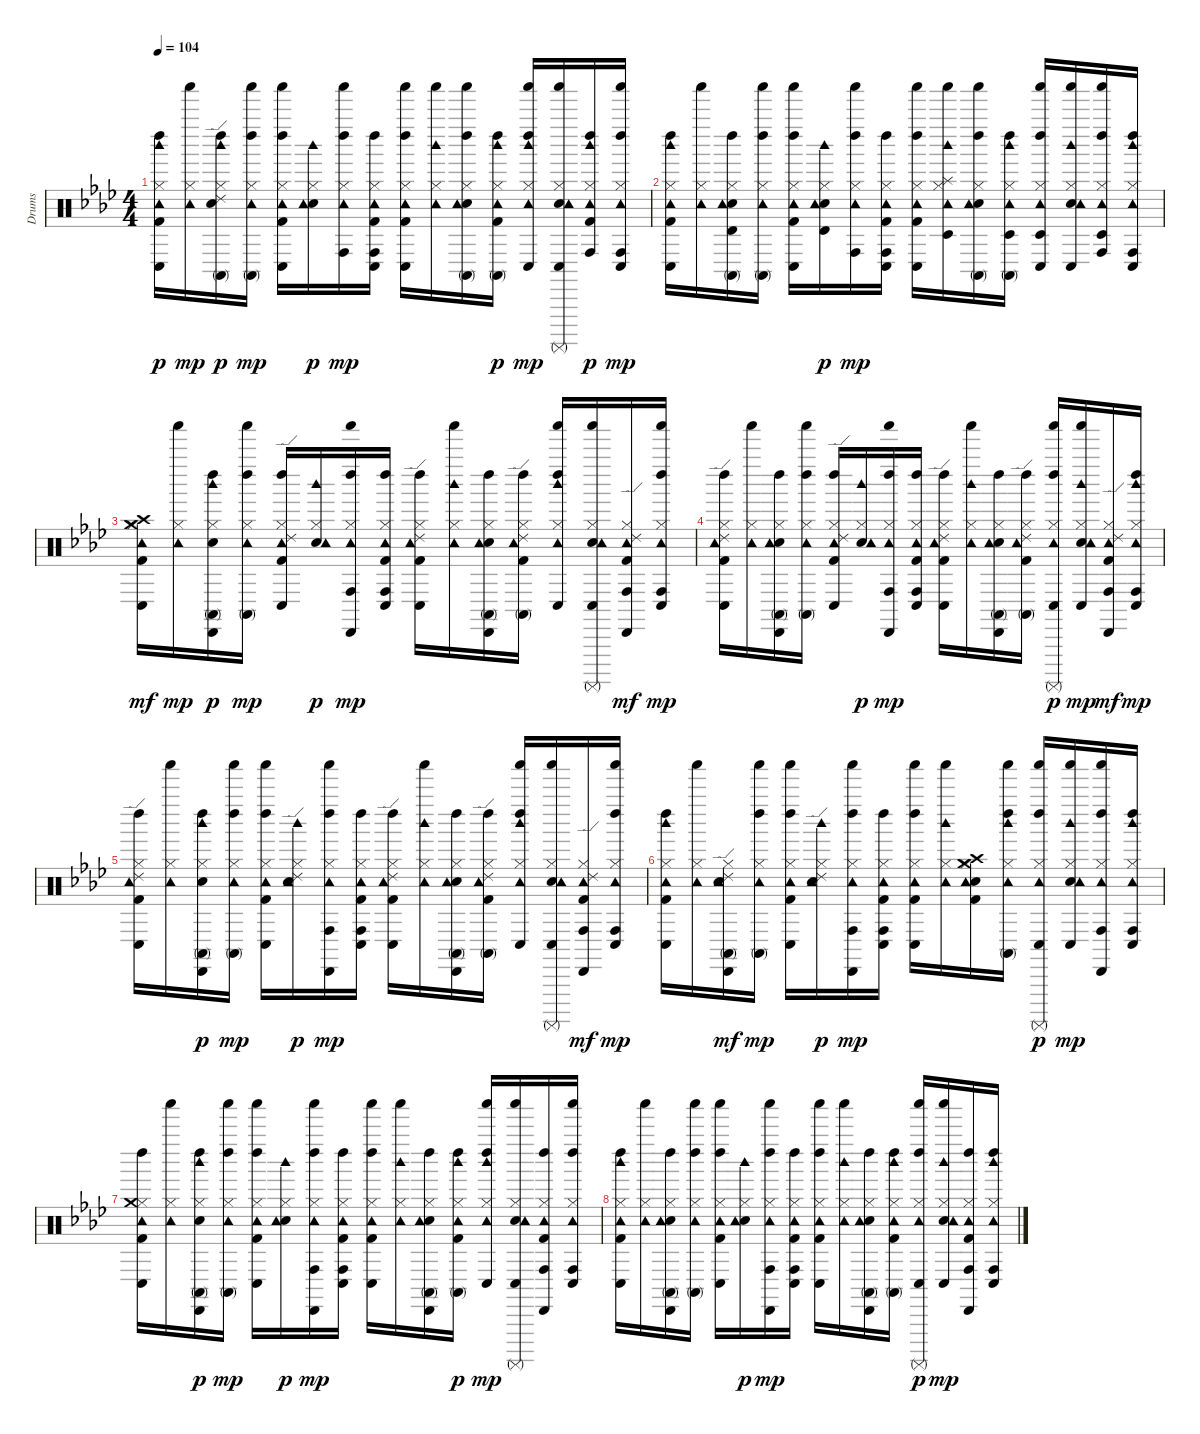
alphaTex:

\track ("Drums" "Drums") {instrument percussion}
\staff {score}
\articulation defaults
\ts (4 4)
\tempo 104
\clef neutral
\ks ab
("Kick (hit) 2" "Hi-Hat (closed)" "Tambourine (hit)" "Conga low (hit)" "Left Maraca (hit)" "Woodblock high (hit)").16{dy p} ("Hi-Hat (closed)" "Tambourine (hit)" "Shaker (hit)").16{dy mp} ("Hand Clap (hit)" "Hi-Hat (closed)" "Ride (edge) 2" "Conga high (mute)" "Left Maraca (hit)" "Woodblock high (hit)").16{dy p} ("Hi-Hat (closed)" "Tambourine (hit)" "Conga high (mute)" "Left Maraca (hit)" "Shaker (hit)").16{dy mp} ("Kick (hit) 2" "Hi-Hat (closed)" "Tambourine (hit)" "Conga low (hit)" "Left Maraca (hit)" "Shaker (hit)").16 ("Hand Clap (hit)" "Hi-Hat (closed)" "Tambourine (hit)" "Woodblock high (hit)").16{dy p} ("Hi-Hat (closed)" "Tambourine (hit)" "Conga high (hit)" "Left Maraca (hit)" "Shaker (hit)").16{dy mp} ("Kick (hit) 2" "Hi-Hat (closed)" "Tambourine (hit)" "Conga high (hit)" "Conga low (hit)" "Left Maraca (hit)").16 ("Kick (hit) 2" "Hi-Hat (closed)" "Tambourine (hit)" "Conga low (hit)" "Left Maraca (hit)" "Shaker (hit)").16 ("Hi-Hat (closed)" "Tambourine (hit)" "Woodblock high (hit)" "Shaker (hit)").16 ("Hand Clap (hit)" "Hi-Hat (closed)" "Tambourine (hit)" "Conga high (mute)" "Left Maraca (hit)" "Shaker (hit)").16 ("Kick (hit) 2" "Hi-Hat (closed)" "Tambourine (hit)" "Conga high (mute)" "Left Maraca (hit)" "Woodblock high (hit)").16{dy p} ("Hi-Hat (closed)" "Tambourine (hit)" "Conga low (hit)" "Left Maraca (hit)" "Woodblock high (hit)" "Shaker (hit)").16{dy mp} ("Hand Clap (hit)" "Hi-Hat (closed)" "Tambourine (hit)" "Conga low (hit)" "Shaker (hit)" "Surdo (mute)").16 ("Kick (hit) 2" "Hi-Hat (closed)" "Tambourine (hit)" "Conga high (hit)" "Left Maraca (hit)" "Woodblock high (hit)").16{dy p} ("Hi-Hat (closed)" "Tambourine (hit)" "Conga high (hit)" "Conga low (hit)" "Left Maraca (hit)" "Shaker (hit)").16{dy mp} |
("Kick (hit) 2" "Hi-Hat (closed)" "Tambourine (hit)" "Conga low (hit)" "Left Maraca (hit)" "Woodblock high (hit)").16 ("Hi-Hat (closed)" "Tambourine (hit)" "Shaker (hit)").16 ("Hand Clap (hit)" "Hi-Hat (closed)" "Tambourine (hit)" "Conga high (mute)" "Timbale high (hit)" "Left Maraca (hit)").16 ("Hi-Hat (closed)" "Tambourine (hit)" "Conga high (mute)" "Left Maraca (hit)" "Shaker (hit)").16 ("Kick (hit) 2" "Hi-Hat (closed)" "Tambourine (hit)" "Conga low (hit)" "Left Maraca (hit)" "Shaker (hit)").16 ("Hand Clap (hit)" "Hi-Hat (closed)" "Tambourine (hit)" "Timbale high (hit)" "Woodblock high (hit)").16{dy p} ("Hi-Hat (closed)" "Tambourine (hit)" "Conga high (hit)" "Left Maraca (hit)" "Shaker (hit)").16{dy mp} ("Kick (hit) 2" "Hi-Hat (closed)" "Tambourine (hit)" "Conga high (hit)" "Conga low (hit)" "Left Maraca (hit)").16 ("Kick (hit) 2" "Hi-Hat (closed)" "Tambourine (hit)" "Conga low (hit)" "Left Maraca (hit)" "Shaker (hit)").16 ("Hi-Hat (closed)" "Tambourine (hit)" "Splash (hit)" "Timbale low (hit)" "Woodblock high (hit)" "Shaker (hit)").16 ("Hand Clap (hit)" "Hi-Hat (closed)" "Tambourine (hit)" "Conga high (mute)" "Left Maraca (hit)" "Shaker (hit)").16 ("Hi-Hat (closed)" "Tambourine (hit)" "Conga high (mute)" "Timbale low (hit)" "Left Maraca (hit)" "Woodblock high (hit)").16 ("Hi-Hat (closed)" "Tambourine (hit)" "Conga low (hit)" "Timbale low (hit)" "Left Maraca (hit)" "Shaker (hit)").16 ("Hand Clap (hit)" "Hi-Hat (closed)" "Tambourine (hit)" "Conga low (hit)" "Woodblock high (hit)" "Shaker (hit)").16 ("Hi-Hat (closed)" "Tambourine (hit)" "Conga high (hit)" "Timbale low (hit)" "Left Maraca (hit)" "Shaker (hit)").16 ("Hi-Hat (closed)" "Tambourine (hit)" "Conga high (hit)" "Conga low (hit)" "Left Maraca (hit)" "Woodblock high (hit)").16 |
("Kick (hit) 2" "Hi-Hat (closed)" "Crash high (hit)" "Tambourine (hit)" "Crash medium (hit)" "Conga low (hit)").16{dy mf} ("Hi-Hat (closed)" "Tambourine (hit)" "Shaker (hit)").16{dy mp} ("Hand Clap (hit)" "Hi-Hat (closed)" "Conga high (mute)" "Cabasa (hit)" "Left Maraca (hit)" "Woodblock high (hit)").16{dy p} ("Hi-Hat (closed)" "Tambourine (hit)" "Conga high (mute)" "Left Maraca (hit)" "Shaker (hit)").16{dy mp} ("Kick (hit) 2" "Hi-Hat (closed)" "Tambourine (hit)" "Ride (edge) 2" "Conga low (hit)" "Left Maraca (hit)").16 ("Hand Clap (hit)" "Hi-Hat (closed)" "Tambourine (hit)" "Woodblock high (hit)").16{dy p} ("Hi-Hat (closed)" "Tambourine (hit)" "Conga high (hit)" "Cabasa (hit)" "Left Maraca (hit)" "Shaker (hit)").16{dy mp} ("Kick (hit) 2" "Hi-Hat (closed)" "Tambourine (hit)" "Conga high (hit)" "Conga low (hit)" "Left Maraca (hit)").16 ("Kick (hit) 2" "Hi-Hat (closed)" "Tambourine (hit)" "Ride (edge) 2" "Conga low (hit)" "Left Maraca (hit)").16 ("Hi-Hat (closed)" "Tambourine (hit)" "Woodblock high (hit)" "Shaker (hit)").16 ("Hand Clap (hit)" "Hi-Hat (closed)" "Tambourine (hit)" "Conga high (mute)" "Cabasa (hit)" "Left Maraca (hit)").16 ("Kick (hit) 2" "Hi-Hat (closed)" "Tambourine (hit)" "Ride (edge) 2" "Conga high (mute)" "Left Maraca (hit)").16 ("Hi-Hat (closed)" "Tambourine (hit)" "Conga low (hit)" "Left Maraca (hit)" "Woodblock high (hit)" "Shaker (hit)").16 ("Hand Clap (hit)" "Hi-Hat (closed)" "Tambourine (hit)" "Conga low (hit)" "Shaker (hit)" "Surdo (mute)").16 ("Kick (hit) 2" "Hi-Hat (closed)" "Tambourine (hit)" "Ride (edge) 2" "Conga high (hit)" "Cabasa (hit)").16{dy mf} ("Hi-Hat (closed)" "Tambourine (hit)" "Conga high (hit)" "Conga low (hit)" "Left Maraca (hit)" "Shaker (hit)").16{dy mp} |
("Kick (hit) 2" "Hi-Hat (closed)" "Tambourine (hit)" "Ride (edge) 2" "Conga low (hit)" "Left Maraca (hit)").16 ("Hi-Hat (closed)" "Tambourine (hit)" "Shaker (hit)").16 ("Hand Clap (hit)" "Hi-Hat (closed)" "Tambourine (hit)" "Conga high (mute)" "Cabasa (hit)" "Left Maraca (hit)").16 ("Hi-Hat (closed)" "Tambourine (hit)" "Conga high (mute)" "Left Maraca (hit)" "Shaker (hit)").16 ("Kick (hit) 2" "Hi-Hat (closed)" "Tambourine (hit)" "Ride (edge) 2" "Conga low (hit)" "Left Maraca (hit)").16 ("Hand Clap (hit)" "Hi-Hat (closed)" "Tambourine (hit)" "Woodblock high (hit)").16{dy p} ("Hi-Hat (closed)" "Tambourine (hit)" "Conga high (hit)" "Cabasa (hit)" "Left Maraca (hit)" "Shaker (hit)").16{dy mp} ("Kick (hit) 2" "Hi-Hat (closed)" "Tambourine (hit)" "Conga high (hit)" "Conga low (hit)" "Left Maraca (hit)").16 ("Kick (hit) 2" "Hi-Hat (closed)" "Tambourine (hit)" "Ride (edge) 2" "Conga low (hit)" "Left Maraca (hit)").16 ("Hi-Hat (closed)" "Tambourine (hit)" "Woodblock high (hit)" "Shaker (hit)").16 ("Hand Clap (hit)" "Hi-Hat (closed)" "Tambourine (hit)" "Conga high (mute)" "Cabasa (hit)" "Left Maraca (hit)").16 ("Kick (hit) 2" "Hi-Hat (closed)" "Tambourine (hit)" "Ride (edge) 2" "Conga high (mute)" "Left Maraca (hit)").16 ("Hi-Hat (closed)" "Tambourine (hit)" "Conga low (hit)" "Left Maraca (hit)" "Shaker (hit)" "Surdo (mute)").16{dy p} ("Hand Clap (hit)" "Hi-Hat (closed)" "Tambourine (hit)" "Conga low (hit)" "Woodblock high (hit)" "Shaker (hit)").16{dy mp} ("Kick (hit) 2" "Hi-Hat (closed)" "Tambourine (hit)" "Ride (edge) 2" "Conga high (hit)" "Cabasa (hit)").16{dy mf} ("Hi-Hat (closed)" "Tambourine (hit)" "Conga high (hit)" "Conga low (hit)" "Left Maraca (hit)" "Woodblock high (hit)").16{dy mp} |
("Kick (hit) 2" "Hi-Hat (closed)" "Tambourine (hit)" "Ride (edge) 2" "Conga low (hit)" "Left Maraca (hit)").16 ("Hi-Hat (closed)" "Tambourine (hit)" "Shaker (hit)").16 ("Hand Clap (hit)" "Hi-Hat (closed)" "Conga high (mute)" "Cabasa (hit)" "Left Maraca (hit)" "Woodblock high (hit)").16{dy p} ("Hi-Hat (closed)" "Tambourine (hit)" "Conga high (mute)" "Left Maraca (hit)" "Shaker (hit)").16{dy mp} ("Kick (hit) 2" "Hi-Hat (closed)" "Tambourine (hit)" "Conga low (hit)" "Left Maraca (hit)" "Shaker (hit)").16 ("Hand Clap (hit)" "Hi-Hat (closed)" "Tambourine (hit)" "Ride (edge) 2" "Woodblock high (hit)").16{dy p} ("Hi-Hat (closed)" "Tambourine (hit)" "Conga high (hit)" "Cabasa (hit)" "Left Maraca (hit)" "Shaker (hit)").16{dy mp} ("Kick (hit) 2" "Hi-Hat (closed)" "Tambourine (hit)" "Conga high (hit)" "Conga low (hit)" "Left Maraca (hit)").16 ("Kick (hit) 2" "Hi-Hat (closed)" "Tambourine (hit)" "Ride (edge) 2" "Conga low (hit)" "Left Maraca (hit)").16 ("Hi-Hat (closed)" "Tambourine (hit)" "Woodblock high (hit)" "Shaker (hit)").16 ("Hand Clap (hit)" "Hi-Hat (closed)" "Tambourine (hit)" "Conga high (mute)" "Cabasa (hit)" "Left Maraca (hit)").16 ("Kick (hit) 2" "Hi-Hat (closed)" "Tambourine (hit)" "Ride (edge) 2" "Conga high (mute)" "Left Maraca (hit)").16 ("Hi-Hat (closed)" "Tambourine (hit)" "Conga low (hit)" "Left Maraca (hit)" "Woodblock high (hit)" "Shaker (hit)").16 ("Hand Clap (hit)" "Hi-Hat (closed)" "Tambourine (hit)" "Conga low (hit)" "Shaker (hit)" "Surdo (mute)").16 ("Kick (hit) 2" "Hi-Hat (closed)" "Tambourine (hit)" "Ride (edge) 2" "Conga high (hit)" "Cabasa (hit)").16{dy mf} ("Hi-Hat (closed)" "Tambourine (hit)" "Conga high (hit)" "Conga low (hit)" "Left Maraca (hit)" "Shaker (hit)").16{dy mp} |
("Kick (hit) 2" "Hi-Hat (closed)" "Tambourine (hit)" "Conga low (hit)" "Left Maraca (hit)" "Woodblock high (hit)").16 ("Hi-Hat (closed)" "Tambourine (hit)" "Shaker (hit)").16 ("Hand Clap (hit)" "Hi-Hat (closed)" "Tambourine (hit)" "Ride (edge) 2" "Conga high (mute)" "Cabasa (hit)").16{dy mf} ("Hi-Hat (closed)" "Tambourine (hit)" "Conga high (mute)" "Left Maraca (hit)" "Shaker (hit)").16{dy mp} ("Kick (hit) 2" "Hi-Hat (closed)" "Tambourine (hit)" "Conga low (hit)" "Left Maraca (hit)" "Shaker (hit)").16 ("Hand Clap (hit)" "Hi-Hat (closed)" "Tambourine (hit)" "Ride (edge) 2" "Woodblock high (hit)").16{dy p} ("Hi-Hat (closed)" "Tambourine (hit)" "Conga high (hit)" "Cabasa (hit)" "Left Maraca (hit)" "Shaker (hit)").16{dy mp} ("Kick (hit) 2" "Hi-Hat (closed)" "Tambourine (hit)" "Conga high (hit)" "Conga low (hit)" "Left Maraca (hit)").16 ("Kick (hit) 2" "Hi-Hat (closed)" "Tambourine (hit)" "Conga low (hit)" "Left Maraca (hit)" "Shaker (hit)").16 ("Hi-Hat (closed)" "Tambourine (hit)" "Woodblock high (hit)" "Shaker (hit)").16 ("Kick (hit) 2" "Hand Clap (hit)" "Hi-Hat (closed)" "Crash high (hit)" "Tambourine (hit)" "Crash medium (hit)").16 ("Hi-Hat (closed)" "Tambourine (hit)" "Conga high (mute)" "Left Maraca (hit)" "Woodblock high (hit)" "Shaker (hit)").16 ("Hi-Hat (closed)" "Tambourine (hit)" "Conga low (hit)" "Left Maraca (hit)" "Shaker (hit)" "Surdo (mute)").16{dy p} ("Hand Clap (hit)" "Hi-Hat (closed)" "Tambourine (hit)" "Conga low (hit)" "Woodblock high (hit)" "Shaker (hit)").16{dy mp} ("Hi-Hat (closed)" "Tambourine (hit)" "Conga high (hit)" "Cabasa (hit)" "Left Maraca (hit)" "Shaker (hit)").16 ("Hi-Hat (closed)" "Tambourine (hit)" "Conga high (hit)" "Conga low (hit)" "Left Maraca (hit)" "Woodblock high (hit)").16 |
("Kick (hit) 2" "Hi-Hat (closed)" "Tambourine (hit)" "Crash medium (hit)" "Conga low (hit)" "Left Maraca (hit)").16 ("Hi-Hat (closed)" "Tambourine (hit)" "Shaker (hit)").16 ("Hand Clap (hit)" "Hi-Hat (closed)" "Conga high (mute)" "Cabasa (hit)" "Left Maraca (hit)" "Woodblock high (hit)").16{dy p} ("Hi-Hat (closed)" "Tambourine (hit)" "Conga high (mute)" "Left Maraca (hit)" "Shaker (hit)").16{dy mp} ("Kick (hit) 2" "Hi-Hat (closed)" "Tambourine (hit)" "Conga low (hit)" "Left Maraca (hit)" "Shaker (hit)").16 ("Hand Clap (hit)" "Hi-Hat (closed)" "Tambourine (hit)" "Woodblock high (hit)").16{dy p} ("Hi-Hat (closed)" "Tambourine (hit)" "Conga high (hit)" "Cabasa (hit)" "Left Maraca (hit)" "Shaker (hit)").16{dy mp} ("Kick (hit) 2" "Hi-Hat (closed)" "Tambourine (hit)" "Conga high (hit)" "Conga low (hit)" "Left Maraca (hit)").16 ("Kick (hit) 2" "Hi-Hat (closed)" "Tambourine (hit)" "Conga low (hit)" "Left Maraca (hit)" "Shaker (hit)").16 ("Hi-Hat (closed)" "Tambourine (hit)" "Woodblock high (hit)" "Shaker (hit)").16 ("Hand Clap (hit)" "Hi-Hat (closed)" "Tambourine (hit)" "Conga high (mute)" "Cabasa (hit)" "Left Maraca (hit)").16 ("Kick (hit) 2" "Hi-Hat (closed)" "Tambourine (hit)" "Conga high (mute)" "Left Maraca (hit)" "Woodblock high (hit)").16{dy p} ("Hi-Hat (closed)" "Tambourine (hit)" "Conga low (hit)" "Left Maraca (hit)" "Woodblock high (hit)" "Shaker (hit)").16{dy mp} ("Hand Clap (hit)" "Hi-Hat (closed)" "Tambourine (hit)" "Conga low (hit)" "Shaker (hit)" "Surdo (mute)").16 ("Kick (hit) 2" "Hi-Hat (closed)" "Tambourine (hit)" "Conga high (hit)" "Cabasa (hit)" "Left Maraca (hit)").16 ("Hi-Hat (closed)" "Tambourine (hit)" "Conga high (hit)" "Conga low (hit)" "Left Maraca (hit)" "Shaker (hit)").16 |
("Kick (hit) 2" "Hi-Hat (closed)" "Tambourine (hit)" "Conga low (hit)" "Left Maraca (hit)" "Woodblock high (hit)").16 ("Hi-Hat (closed)" "Tambourine (hit)" "Shaker (hit)").16 ("Hand Clap (hit)" "Hi-Hat (closed)" "Tambourine (hit)" "Conga high (mute)" "Cabasa (hit)" "Left Maraca (hit)").16 ("Hi-Hat (closed)" "Tambourine (hit)" "Conga high (mute)" "Left Maraca (hit)" "Shaker (hit)").16 ("Kick (hit) 2" "Hi-Hat (closed)" "Tambourine (hit)" "Conga low (hit)" "Left Maraca (hit)" "Shaker (hit)").16 ("Hand Clap (hit)" "Hi-Hat (closed)" "Tambourine (hit)" "Woodblock high (hit)").16{dy p} ("Hi-Hat (closed)" "Tambourine (hit)" "Conga high (hit)" "Cabasa (hit)" "Left Maraca (hit)" "Shaker (hit)").16{dy mp} ("Kick (hit) 2" "Hi-Hat (closed)" "Tambourine (hit)" "Conga high (hit)" "Conga low (hit)" "Left Maraca (hit)").16 ("Kick (hit) 2" "Hi-Hat (closed)" "Tambourine (hit)" "Conga low (hit)" "Left Maraca (hit)" "Shaker (hit)").16 ("Hi-Hat (closed)" "Tambourine (hit)" "Woodblock high (hit)" "Shaker (hit)").16 ("Hand Clap (hit)" "Hi-Hat (closed)" "Tambourine (hit)" "Conga high (mute)" "Cabasa (hit)" "Left Maraca (hit)").16 ("Kick (hit) 2" "Hi-Hat (closed)" "Tambourine (hit)" "Conga high (mute)" "Left Maraca (hit)" "Woodblock high (hit)").16 ("Hi-Hat (closed)" "Tambourine (hit)" "Conga low (hit)" "Left Maraca (hit)" "Shaker (hit)" "Surdo (mute)").16{dy p} ("Hand Clap (hit)" "Hi-Hat (closed)" "Tambourine (hit)" "Conga low (hit)" "Woodblock high (hit)" "Shaker (hit)").16{dy mp} ("Kick (hit) 2" "Hi-Hat (closed)" "Tambourine (hit)" "Conga high (hit)" "Cabasa (hit)" "Left Maraca (hit)").16 ("Hi-Hat (closed)" "Tambourine (hit)" "Conga high (hit)" "Conga low (hit)" "Left Maraca (hit)" "Woodblock high (hit)").16
